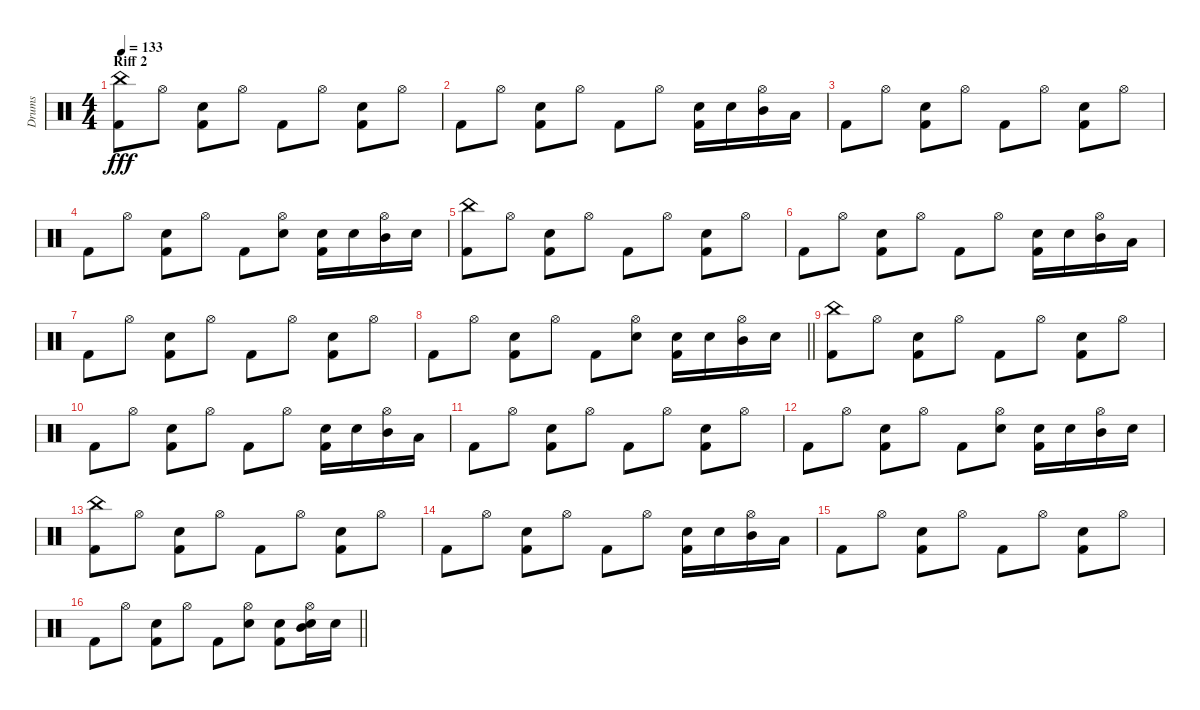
\track ("Drums" "Drums") {instrument percussion}
\staff {score}
\articulation defaults
\ts (4 4)
\section ("" "Riff 2")
\tempo 133
\clef neutral
\ks c
("Kick (hit) 2" "China (hit)").8{dy fff} "Hi-Hat (open)".8 ("Kick (hit) 2" "Snare (hit) 2").8 "Hi-Hat (open)".8 "Kick (hit) 2".8 "Hi-Hat (open)".8 ("Kick (hit) 2" "Snare (hit) 2").8 "Hi-Hat (open)".8 |
"Kick (hit) 2".8 "Hi-Hat (open)".8 ("Kick (hit) 2" "Snare (hit) 2").8 "Hi-Hat (open)".8 "Kick (hit) 2".8 "Hi-Hat (open)".8 ("Kick (hit) 2" "Snare (hit) 2").16 "Snare (hit) 2".16 ("Hi-Hat (open)" "Mid Tom (hit)").16 "Low Tom (hit)".16 |
"Kick (hit) 2".8 "Hi-Hat (open)".8 ("Kick (hit) 2" "Snare (hit) 2").8 "Hi-Hat (open)".8 "Kick (hit) 2".8 "Hi-Hat (open)".8 ("Kick (hit) 2" "Snare (hit) 2").8 "Hi-Hat (open)".8 |
"Kick (hit) 2".8 "Hi-Hat (open)".8 ("Kick (hit) 2" "Snare (hit) 2").8 "Hi-Hat (open)".8 "Kick (hit) 2".8 ("Snare (hit) 2" "Hi-Hat (open)").8 ("Kick (hit) 2" "Snare (hit) 2").16 "Snare (hit) 2".16 ("Hi-Hat (open)" "Mid Tom (hit)").16 "Snare (hit) 2".16 |
("Kick (hit) 2" "China (hit)").8 "Hi-Hat (open)".8 ("Kick (hit) 2" "Snare (hit) 2").8 "Hi-Hat (open)".8 "Kick (hit) 2".8 "Hi-Hat (open)".8 ("Kick (hit) 2" "Snare (hit) 2").8 "Hi-Hat (open)".8 |
"Kick (hit) 2".8 "Hi-Hat (open)".8 ("Kick (hit) 2" "Snare (hit) 2").8 "Hi-Hat (open)".8 "Kick (hit) 2".8 "Hi-Hat (open)".8 ("Kick (hit) 2" "Snare (hit) 2").16 "Snare (hit) 2".16 ("Hi-Hat (open)" "Mid Tom (hit)").16 "Low Tom (hit)".16 |
"Kick (hit) 2".8 "Hi-Hat (open)".8 ("Kick (hit) 2" "Snare (hit) 2").8 "Hi-Hat (open)".8 "Kick (hit) 2".8 "Hi-Hat (open)".8 ("Kick (hit) 2" "Snare (hit) 2").8 "Hi-Hat (open)".8 |
\barLineRight lightlight "Kick (hit) 2".8 "Hi-Hat (open)".8
("Kick (hit) 2" "Snare (hit) 2").8 "Hi-Hat (open)".8 "Kick (hit) 2".8 ("Snare (hit) 2" "Hi-Hat (open)").8 ("Kick (hit) 2" "Snare (hit) 2").16 "Snare (hit) 2".16 ("Hi-Hat (open)" "Mid Tom (hit)").16 "Snare (hit) 2".16 |
("Kick (hit) 2" "China (hit)").8 "Hi-Hat (open)".8 ("Kick (hit) 2" "Snare (hit) 2").8 "Hi-Hat (open)".8 "Kick (hit) 2".8 "Hi-Hat (open)".8 ("Kick (hit) 2" "Snare (hit) 2").8 "Hi-Hat (open)".8 |
"Kick (hit) 2".8 "Hi-Hat (open)".8 ("Kick (hit) 2" "Snare (hit) 2").8 "Hi-Hat (open)".8 "Kick (hit) 2".8 "Hi-Hat (open)".8 ("Kick (hit) 2" "Snare (hit) 2").16 "Snare (hit) 2".16 ("Hi-Hat (open)" "Mid Tom (hit)").16 "Low Tom (hit)".16 |
"Kick (hit) 2".8 "Hi-Hat (open)".8 ("Kick (hit) 2" "Snare (hit) 2").8 "Hi-Hat (open)".8 "Kick (hit) 2".8 "Hi-Hat (open)".8 ("Kick (hit) 2" "Snare (hit) 2").8 "Hi-Hat (open)".8 |
"Kick (hit) 2".8 "Hi-Hat (open)".8 ("Kick (hit) 2" "Snare (hit) 2").8 "Hi-Hat (open)".8 "Kick (hit) 2".8 ("Snare (hit) 2" "Hi-Hat (open)").8 ("Kick (hit) 2" "Snare (hit) 2").16 "Snare (hit) 2".16 ("Hi-Hat (open)" "Mid Tom (hit)").16 "Snare (hit) 2".16 |
("Kick (hit) 2" "China (hit)").8 "Hi-Hat (open)".8 ("Kick (hit) 2" "Snare (hit) 2").8 "Hi-Hat (open)".8 "Kick (hit) 2".8 "Hi-Hat (open)".8 ("Kick (hit) 2" "Snare (hit) 2").8 "Hi-Hat (open)".8 |
"Kick (hit) 2".8 "Hi-Hat (open)".8 ("Kick (hit) 2" "Snare (hit) 2").8 "Hi-Hat (open)".8 "Kick (hit) 2".8 "Hi-Hat (open)".8 ("Kick (hit) 2" "Snare (hit) 2").16 "Snare (hit) 2".16 ("Hi-Hat (open)" "Mid Tom (hit)").16 "Low Tom (hit)".16 |
"Kick (hit) 2".8 "Hi-Hat (open)".8 ("Kick (hit) 2" "Snare (hit) 2").8 "Hi-Hat (open)".8 "Kick (hit) 2".8 "Hi-Hat (open)".8 ("Kick (hit) 2" "Snare (hit) 2").8 "Hi-Hat (open)".8 |
\barLineRight lightlight "Kick (hit) 2".8 "Hi-Hat (open)".8
("Kick (hit) 2" "Snare (hit) 2").8 "Hi-Hat (open)".8 "Kick (hit) 2".8 ("Snare (hit) 2" "Hi-Hat (open)").8 ("Kick (hit) 2" "Snare (hit) 2").8 ("Snare (hit) 2" "Hi-Hat (open)" "Mid Tom (hit)").16 "Snare (hit) 2".16
